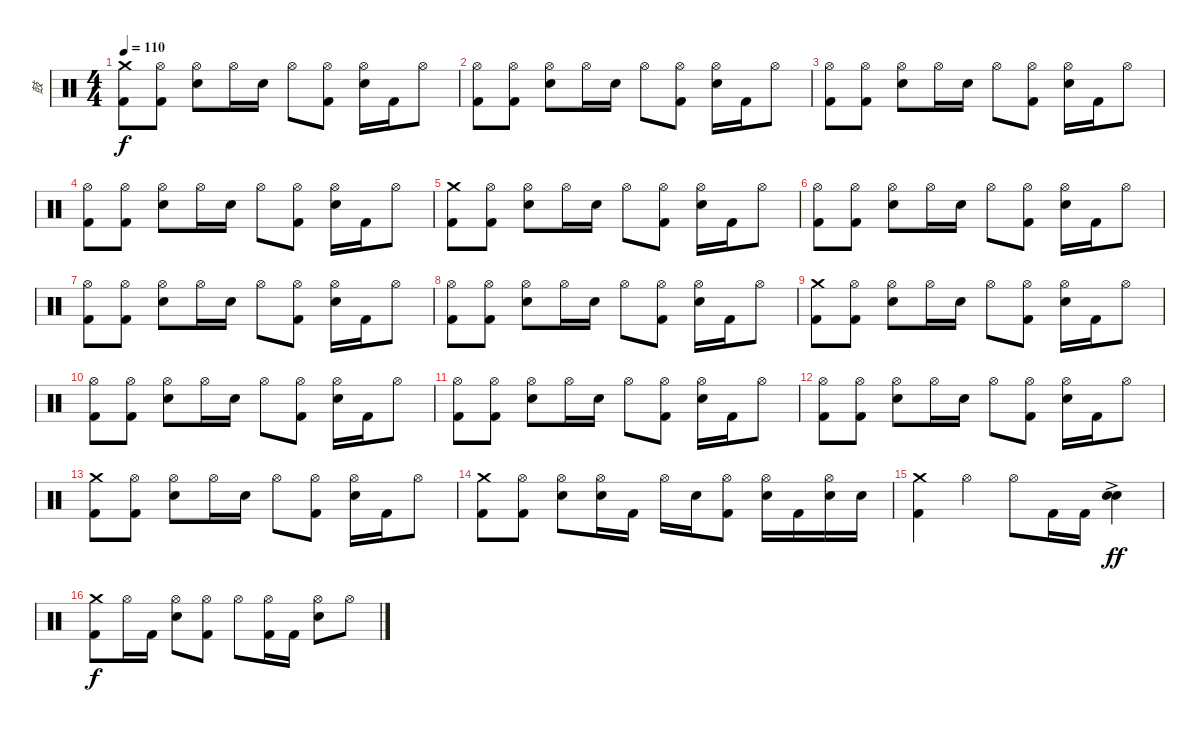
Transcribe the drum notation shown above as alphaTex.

\track ("鼓" "鼓") {instrument percussion}
\staff {score}
\articulation defaults
\ts (4 4)
\tempo 110
\clef neutral
\ks c
("Crash medium (hit)" "Kick (hit) 2").8{dy f} ("Hi-Hat (open)" "Kick (hit) 2").8 ("Hi-Hat (open)" "Electric Snare (hit)").8 "Hi-Hat (open)".16 "Electric Snare (hit)".16 "Hi-Hat (open)".8 ("Hi-Hat (open)" "Kick (hit) 2").8 ("Hi-Hat (open)" "Electric Snare (hit)").16 "Kick (hit) 2".16 "Hi-Hat (open)".8 |
("Hi-Hat (open)" "Kick (hit) 2").8 ("Hi-Hat (open)" "Kick (hit) 2").8 ("Hi-Hat (open)" "Electric Snare (hit)").8 "Hi-Hat (open)".16 "Electric Snare (hit)".16 "Hi-Hat (open)".8 ("Hi-Hat (open)" "Kick (hit) 2").8 ("Hi-Hat (open)" "Electric Snare (hit)").16 "Kick (hit) 2".16 "Hi-Hat (open)".8 |
("Hi-Hat (open)" "Kick (hit) 2").8 ("Hi-Hat (open)" "Kick (hit) 2").8 ("Hi-Hat (open)" "Electric Snare (hit)").8 "Hi-Hat (open)".16 "Electric Snare (hit)".16 "Hi-Hat (open)".8 ("Hi-Hat (open)" "Kick (hit) 2").8 ("Hi-Hat (open)" "Electric Snare (hit)").16 "Kick (hit) 2".16 "Hi-Hat (open)".8 |
("Hi-Hat (open)" "Kick (hit) 2").8 ("Hi-Hat (open)" "Kick (hit) 2").8 ("Hi-Hat (open)" "Electric Snare (hit)").8 "Hi-Hat (open)".16 "Electric Snare (hit)".16 "Hi-Hat (open)".8 ("Hi-Hat (open)" "Kick (hit) 2").8 ("Hi-Hat (open)" "Electric Snare (hit)").16 "Kick (hit) 2".16 "Hi-Hat (open)".8 |
("Crash medium (hit)" "Kick (hit) 2").8 ("Hi-Hat (open)" "Kick (hit) 2").8 ("Hi-Hat (open)" "Electric Snare (hit)").8 "Hi-Hat (open)".16 "Electric Snare (hit)".16 "Hi-Hat (open)".8 ("Hi-Hat (open)" "Kick (hit) 2").8 ("Hi-Hat (open)" "Electric Snare (hit)").16 "Kick (hit) 2".16 "Hi-Hat (open)".8 |
("Hi-Hat (open)" "Kick (hit) 2").8 ("Hi-Hat (open)" "Kick (hit) 2").8 ("Hi-Hat (open)" "Electric Snare (hit)").8 "Hi-Hat (open)".16 "Electric Snare (hit)".16 "Hi-Hat (open)".8 ("Hi-Hat (open)" "Kick (hit) 2").8 ("Hi-Hat (open)" "Electric Snare (hit)").16 "Kick (hit) 2".16 "Hi-Hat (open)".8 |
("Hi-Hat (open)" "Kick (hit) 2").8 ("Hi-Hat (open)" "Kick (hit) 2").8 ("Hi-Hat (open)" "Electric Snare (hit)").8 "Hi-Hat (open)".16 "Electric Snare (hit)".16 "Hi-Hat (open)".8 ("Hi-Hat (open)" "Kick (hit) 2").8 ("Hi-Hat (open)" "Electric Snare (hit)").16 "Kick (hit) 2".16 "Hi-Hat (open)".8 |
("Hi-Hat (open)" "Kick (hit) 2").8 ("Hi-Hat (open)" "Kick (hit) 2").8 ("Hi-Hat (open)" "Electric Snare (hit)").8 "Hi-Hat (open)".16 "Electric Snare (hit)".16 "Hi-Hat (open)".8 ("Hi-Hat (open)" "Kick (hit) 2").8 ("Hi-Hat (open)" "Electric Snare (hit)").16 "Kick (hit) 2".16 "Hi-Hat (open)".8 |
("Crash medium (hit)" "Kick (hit) 2").8 ("Hi-Hat (open)" "Kick (hit) 2").8 ("Hi-Hat (open)" "Electric Snare (hit)").8 "Hi-Hat (open)".16 "Electric Snare (hit)".16 "Hi-Hat (open)".8 ("Hi-Hat (open)" "Kick (hit) 2").8 ("Hi-Hat (open)" "Electric Snare (hit)").16 "Kick (hit) 2".16 "Hi-Hat (open)".8 |
("Hi-Hat (open)" "Kick (hit) 2").8 ("Hi-Hat (open)" "Kick (hit) 2").8 ("Hi-Hat (open)" "Electric Snare (hit)").8 "Hi-Hat (open)".16 "Electric Snare (hit)".16 "Hi-Hat (open)".8 ("Hi-Hat (open)" "Kick (hit) 2").8 ("Hi-Hat (open)" "Electric Snare (hit)").16 "Kick (hit) 2".16 "Hi-Hat (open)".8 |
("Hi-Hat (open)" "Kick (hit) 2").8 ("Hi-Hat (open)" "Kick (hit) 2").8 ("Hi-Hat (open)" "Electric Snare (hit)").8 "Hi-Hat (open)".16 "Electric Snare (hit)".16 "Hi-Hat (open)".8 ("Hi-Hat (open)" "Kick (hit) 2").8 ("Hi-Hat (open)" "Electric Snare (hit)").16 "Kick (hit) 2".16 "Hi-Hat (open)".8 |
("Hi-Hat (open)" "Kick (hit) 2").8 ("Hi-Hat (open)" "Kick (hit) 2").8 ("Hi-Hat (open)" "Electric Snare (hit)").8 "Hi-Hat (open)".16 "Electric Snare (hit)".16 "Hi-Hat (open)".8 ("Hi-Hat (open)" "Kick (hit) 2").8 ("Hi-Hat (open)" "Electric Snare (hit)").16 "Kick (hit) 2".16 "Hi-Hat (open)".8 |
("Crash medium (hit)" "Kick (hit) 2").8 ("Hi-Hat (open)" "Kick (hit) 2").8 ("Hi-Hat (open)" "Electric Snare (hit)").8 "Hi-Hat (open)".16 "Electric Snare (hit)".16 "Hi-Hat (open)".8 ("Hi-Hat (open)" "Kick (hit) 2").8 ("Hi-Hat (open)" "Electric Snare (hit)").16 "Kick (hit) 2".16 "Hi-Hat (open)".8 |
("Crash medium (hit)" "Kick (hit) 2").8 ("Hi-Hat (open)" "Kick (hit) 2").8 ("Hi-Hat (open)" "Electric Snare (hit)").8 ("Hi-Hat (open)" "Electric Snare (hit)").16 "Kick (hit) 2".16 "Hi-Hat (open)".16 "Electric Snare (hit)".16 ("Hi-Hat (open)" "Kick (hit) 2").8 ("Hi-Hat (open)" "Electric Snare (hit)").16 "Kick (hit) 2".16 ("Hi-Hat (open)" "Electric Snare (hit)").16 "Electric Snare (hit)".16 |
("Crash medium (hit)" "Kick (hit) 2").4 "Hi-Hat (open)".4 "Hi-Hat (open)".8 "Kick (hit) 2".16 "Kick (hit) 2".16 ("Electric Snare (hit)" "Electric Snare (hit)"{ac}).4{dy ff} |
("Crash medium (hit)" "Kick (hit) 2").8{dy f} "Hi-Hat (open)".16 "Kick (hit) 2".16 ("Hi-Hat (open)" "Electric Snare (hit)").8 ("Hi-Hat (open)" "Kick (hit) 2").8 "Hi-Hat (open)".8 ("Hi-Hat (open)" "Kick (hit) 2").16 "Kick (hit) 2".16 ("Hi-Hat (open)" "Electric Snare (hit)").8 "Hi-Hat (open)".8
